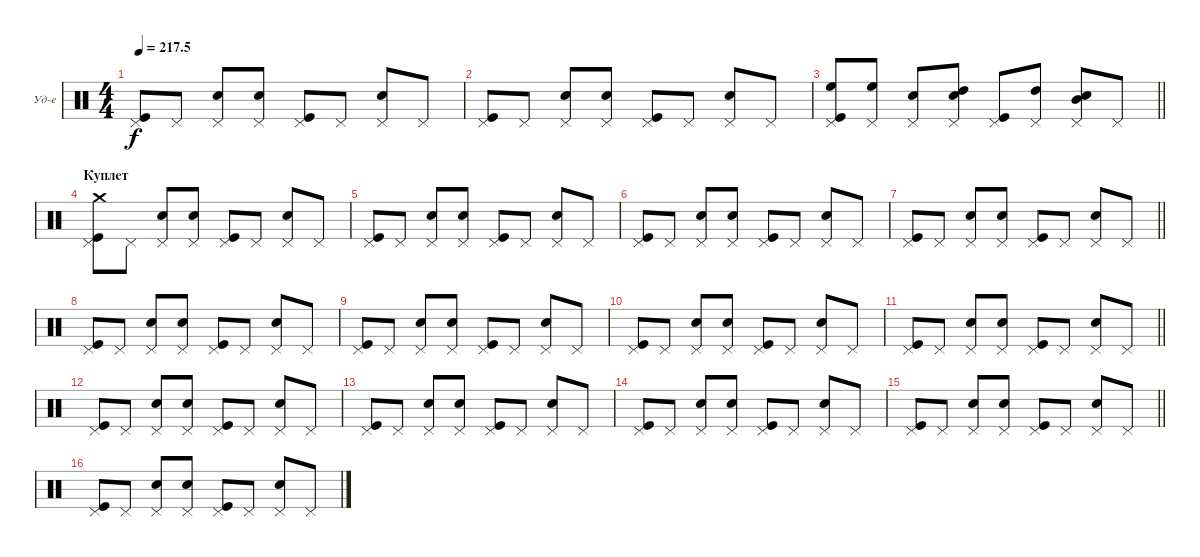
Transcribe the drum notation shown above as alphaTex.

\bracketExtendMode groupsimilarinstruments
\firstSystemTrackNameOrientation horizontal
\otherSystemsTrackNameOrientation horizontal
\track ("Ударные" "Уд-е") {instrument percussion}
\staff {score}
\articulation defaults
\ts (4 4)
\tempo
217.5
\accidentals auto
\clef neutral
\ottava regular
\simile none
\ks c
("Pedal Hi-Hat (hit)" "Kick (hit)").8{dy f} "Pedal Hi-Hat (hit)".8 ("Pedal Hi-Hat (hit)" "Snare (hit) 2").8 ("Pedal Hi-Hat (hit)" "Snare (hit) 2").8 ("Pedal Hi-Hat (hit)" "Kick (hit)").8 "Pedal Hi-Hat (hit)".8 ("Pedal Hi-Hat (hit)" "Snare (hit) 2").8 "Pedal Hi-Hat (hit)".8 |
("Pedal Hi-Hat (hit)" "Kick (hit)").8 "Pedal Hi-Hat (hit)".8 ("Pedal Hi-Hat (hit)" "Snare (hit) 2").8 ("Pedal Hi-Hat (hit)" "Snare (hit) 2").8 ("Pedal Hi-Hat (hit)" "Kick (hit)").8 "Pedal Hi-Hat (hit)".8 ("Pedal Hi-Hat (hit)" "Snare (hit) 2").8 "Pedal Hi-Hat (hit)".8 |
\barLineRight lightlight
("Pedal Hi-Hat (hit)" "Kick (hit)" "High Floor Tom (hit)").8 ("Pedal Hi-Hat (hit)" "High Floor Tom (hit)").8 ("Pedal Hi-Hat (hit)" "Snare (hit) 2").8 ("Pedal Hi-Hat (hit)" "Snare (hit) 2" "High Tom (hit)").8 ("Pedal Hi-Hat (hit)" "Kick (hit)").8 ("Pedal Hi-Hat (hit)" "High Tom (hit)").8 ("Pedal Hi-Hat (hit)" "Snare (hit) 2" "Mid Tom (hit)").8 "Pedal Hi-Hat (hit)".8 |
\section ("" "Куплет")
("Pedal Hi-Hat (hit)" "Kick (hit)" "Crash medium (hit)").8 "Pedal Hi-Hat (hit)".8 ("Pedal Hi-Hat (hit)" "Snare (hit) 2").8 ("Pedal Hi-Hat (hit)" "Snare (hit) 2").8 ("Pedal Hi-Hat (hit)" "Kick (hit)").8 "Pedal Hi-Hat (hit)".8 ("Pedal Hi-Hat (hit)" "Snare (hit) 2").8 "Pedal Hi-Hat (hit)".8 |
("Pedal Hi-Hat (hit)" "Kick (hit)").8 "Pedal Hi-Hat (hit)".8 ("Pedal Hi-Hat (hit)" "Snare (hit) 2").8 ("Pedal Hi-Hat (hit)" "Snare (hit) 2").8 ("Pedal Hi-Hat (hit)" "Kick (hit)").8 "Pedal Hi-Hat (hit)".8 ("Pedal Hi-Hat (hit)" "Snare (hit) 2").8 "Pedal Hi-Hat (hit)".8 |
("Pedal Hi-Hat (hit)" "Kick (hit)").8 "Pedal Hi-Hat (hit)".8 ("Pedal Hi-Hat (hit)" "Snare (hit) 2").8 ("Pedal Hi-Hat (hit)" "Snare (hit) 2").8 ("Pedal Hi-Hat (hit)" "Kick (hit)").8 "Pedal Hi-Hat (hit)".8 ("Pedal Hi-Hat (hit)" "Snare (hit) 2").8 "Pedal Hi-Hat (hit)".8 |
\barLineRight lightlight
("Pedal Hi-Hat (hit)" "Kick (hit)").8 "Pedal Hi-Hat (hit)".8 ("Pedal Hi-Hat (hit)" "Snare (hit) 2").8 ("Pedal Hi-Hat (hit)" "Snare (hit) 2").8 ("Pedal Hi-Hat (hit)" "Kick (hit)").8 "Pedal Hi-Hat (hit)".8 ("Pedal Hi-Hat (hit)" "Snare (hit) 2").8 "Pedal Hi-Hat (hit)".8 |
("Pedal Hi-Hat (hit)" "Kick (hit)").8 "Pedal Hi-Hat (hit)".8 ("Pedal Hi-Hat (hit)" "Snare (hit) 2").8 ("Pedal Hi-Hat (hit)" "Snare (hit) 2").8 ("Pedal Hi-Hat (hit)" "Kick (hit)").8 "Pedal Hi-Hat (hit)".8 ("Pedal Hi-Hat (hit)" "Snare (hit) 2").8 "Pedal Hi-Hat (hit)".8 |
("Pedal Hi-Hat (hit)" "Kick (hit)").8 "Pedal Hi-Hat (hit)".8 ("Pedal Hi-Hat (hit)" "Snare (hit) 2").8 ("Pedal Hi-Hat (hit)" "Snare (hit) 2").8 ("Pedal Hi-Hat (hit)" "Kick (hit)").8 "Pedal Hi-Hat (hit)".8 ("Pedal Hi-Hat (hit)" "Snare (hit) 2").8 "Pedal Hi-Hat (hit)".8 |
("Pedal Hi-Hat (hit)" "Kick (hit)").8 "Pedal Hi-Hat (hit)".8 ("Pedal Hi-Hat (hit)" "Snare (hit) 2").8 ("Pedal Hi-Hat (hit)" "Snare (hit) 2").8 ("Pedal Hi-Hat (hit)" "Kick (hit)").8 "Pedal Hi-Hat (hit)".8 ("Pedal Hi-Hat (hit)" "Snare (hit) 2").8 "Pedal Hi-Hat (hit)".8 |
\barLineRight lightlight
("Pedal Hi-Hat (hit)" "Kick (hit)").8 "Pedal Hi-Hat (hit)".8 ("Pedal Hi-Hat (hit)" "Snare (hit) 2").8 ("Pedal Hi-Hat (hit)" "Snare (hit) 2").8 ("Pedal Hi-Hat (hit)" "Kick (hit)").8 "Pedal Hi-Hat (hit)".8 ("Pedal Hi-Hat (hit)" "Snare (hit) 2").8 "Pedal Hi-Hat (hit)".8 |
("Pedal Hi-Hat (hit)" "Kick (hit)").8 "Pedal Hi-Hat (hit)".8 ("Pedal Hi-Hat (hit)" "Snare (hit) 2").8 ("Pedal Hi-Hat (hit)" "Snare (hit) 2").8 ("Pedal Hi-Hat (hit)" "Kick (hit)").8 "Pedal Hi-Hat (hit)".8 ("Pedal Hi-Hat (hit)" "Snare (hit) 2").8 "Pedal Hi-Hat (hit)".8 |
("Pedal Hi-Hat (hit)" "Kick (hit)").8 "Pedal Hi-Hat (hit)".8 ("Pedal Hi-Hat (hit)" "Snare (hit) 2").8 ("Pedal Hi-Hat (hit)" "Snare (hit) 2").8 ("Pedal Hi-Hat (hit)" "Kick (hit)").8 "Pedal Hi-Hat (hit)".8 ("Pedal Hi-Hat (hit)" "Snare (hit) 2").8 "Pedal Hi-Hat (hit)".8 |
("Pedal Hi-Hat (hit)" "Kick (hit)").8 "Pedal Hi-Hat (hit)".8 ("Pedal Hi-Hat (hit)" "Snare (hit) 2").8 ("Pedal Hi-Hat (hit)" "Snare (hit) 2").8 ("Pedal Hi-Hat (hit)" "Kick (hit)").8 "Pedal Hi-Hat (hit)".8 ("Pedal Hi-Hat (hit)" "Snare (hit) 2").8 "Pedal Hi-Hat (hit)".8 |
\barLineRight lightlight
("Pedal Hi-Hat (hit)" "Kick (hit)").8 "Pedal Hi-Hat (hit)".8 ("Pedal Hi-Hat (hit)" "Snare (hit) 2").8 ("Pedal Hi-Hat (hit)" "Snare (hit) 2").8 ("Pedal Hi-Hat (hit)" "Kick (hit)").8 "Pedal Hi-Hat (hit)".8 ("Pedal Hi-Hat (hit)" "Snare (hit) 2").8 "Pedal Hi-Hat (hit)".8 |
("Pedal Hi-Hat (hit)" "Kick (hit)").8 "Pedal Hi-Hat (hit)".8 ("Pedal Hi-Hat (hit)" "Snare (hit) 2").8 ("Pedal Hi-Hat (hit)" "Snare (hit) 2").8 ("Pedal Hi-Hat (hit)" "Kick (hit)").8 "Pedal Hi-Hat (hit)".8 ("Pedal Hi-Hat (hit)" "Snare (hit) 2").8 "Pedal Hi-Hat (hit)".8
